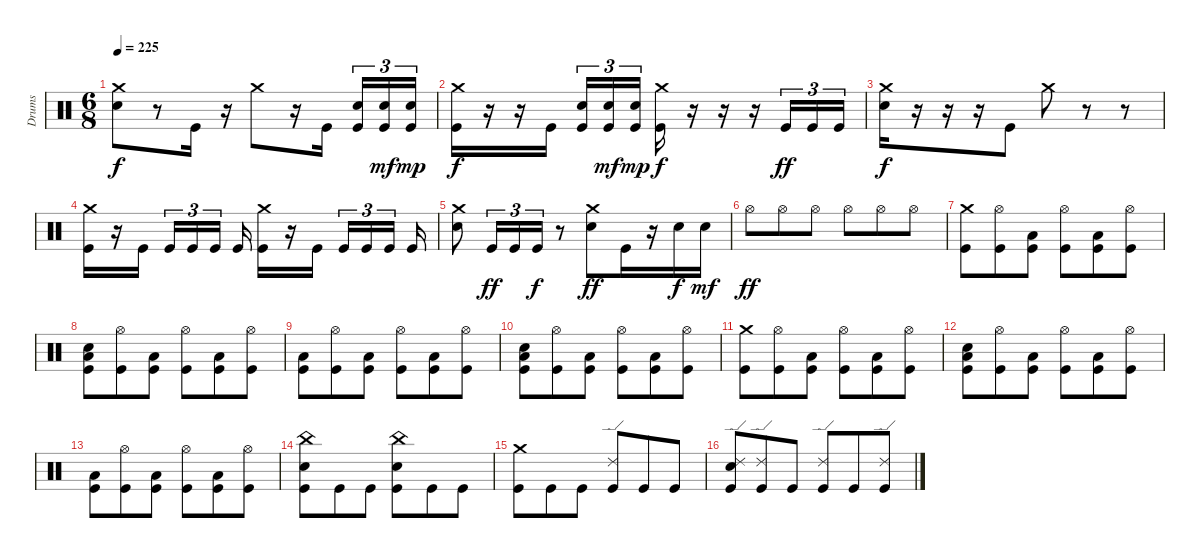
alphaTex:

\track ("Drums" "Drums") {instrument percussion}
\staff {score}
\articulation defaults
\ts (6 8)
\tempo 225
\clef neutral
\ks c
("Snare (hit) 2" "Crash medium (hit)").8{dy f} r.8 "Kick (hit)".16 r.16 "Crash medium (hit)".8 r.16 "Kick (hit)".16{beam splitsecondary} ("Kick (hit)" "Snare (hit) 2").16{tu (3 2)} ("Kick (hit)" "Snare (hit) 2").16{tu (3 2) dy mf} ("Kick (hit)" "Snare (hit) 2").16{tu (3 2) dy mp} |
("Kick (hit)" "Crash medium (hit)").16{dy f} r.16 r.16 "Kick (hit)".16{beam splitsecondary} ("Kick (hit)" "Snare (hit) 2").16{tu (3 2)} ("Kick (hit)" "Snare (hit) 2").16{tu (3 2) dy mf} ("Kick (hit)" "Snare (hit) 2").16{tu (3 2) dy mp} ("Kick (hit)" "Crash medium (hit)").16{dy f} r.16 r.16 r.16 "Kick (hit)".16{tu (3 2) dy ff} "Kick (hit)".16{tu (3 2)} "Kick (hit)".16{tu (3 2)} |
("Snare (hit) 2" "Crash medium (hit)").16{dy f} r.16 r.16 r.16 "Kick (hit)".8 "Crash medium (hit)".8 r.8 r.8 |
("Kick (hit)" "Crash medium (hit)").16 r.16 "Kick (hit)".16{beam splitsecondary} "Kick (hit)".16{tu (3 2)} "Kick (hit)".16{tu (3 2)} "Kick (hit)".16{tu (3 2) beam splitsecondary} "Kick (hit)".16 ("Kick (hit)" "Crash medium (hit)").16 r.16 "Kick (hit)".16{beam splitsecondary} "Kick (hit)".16{tu (3 2)} "Kick (hit)".16{tu (3 2)} "Kick (hit)".16{tu (3 2) beam splitsecondary} "Kick (hit)".16 |
("Snare (hit) 2" "Crash medium (hit)").8 "Kick (hit)".16{tu (3 2) dy ff} "Kick (hit)".16{tu (3 2)} "Kick (hit)".16{tu (3 2) dy f} r.8 ("Snare (hit) 2" "Crash medium (hit)").8{dy ff} "Kick (hit)".16 r.16 "Snare (hit) 2".16{dy f} "Snare (hit) 2".16{dy mf} |
"Hi-Hat (open)".8{dy ff} "Hi-Hat (open)".8 "Hi-Hat (open)".8 "Hi-Hat (open)".8 "Hi-Hat (open)".8 "Hi-Hat (open)".8 |
("Kick (hit)" "Crash medium (hit)").8 ("Kick (hit)" "Hi-Hat (open)").8 ("Kick (hit)" "Low Tom (hit)").8 ("Kick (hit)" "Hi-Hat (open)").8 ("Kick (hit)" "Low Tom (hit)").8 ("Kick (hit)" "Hi-Hat (open)").8 |
("Kick (hit)" "Snare (hit) 2" "Low Tom (hit)").8 ("Kick (hit)" "Hi-Hat (open)").8 ("Kick (hit)" "Low Tom (hit)").8 ("Kick (hit)" "Hi-Hat (open)").8 ("Kick (hit)" "Low Tom (hit)").8 ("Kick (hit)" "Hi-Hat (open)").8 |
("Kick (hit)" "Low Tom (hit)").8 ("Kick (hit)" "Hi-Hat (open)").8 ("Kick (hit)" "Low Tom (hit)").8 ("Kick (hit)" "Hi-Hat (open)").8 ("Kick (hit)" "Low Tom (hit)").8 ("Kick (hit)" "Hi-Hat (open)").8 |
("Kick (hit)" "Snare (hit) 2" "Low Tom (hit)").8 ("Kick (hit)" "Hi-Hat (open)").8 ("Kick (hit)" "Low Tom (hit)").8 ("Kick (hit)" "Hi-Hat (open)").8 ("Kick (hit)" "Low Tom (hit)").8 ("Kick (hit)" "Hi-Hat (open)").8 |
("Kick (hit)" "Crash medium (hit)").8 ("Kick (hit)" "Hi-Hat (open)").8 ("Kick (hit)" "Low Tom (hit)").8 ("Kick (hit)" "Hi-Hat (open)").8 ("Kick (hit)" "Low Tom (hit)").8 ("Kick (hit)" "Hi-Hat (open)").8 |
("Kick (hit)" "Snare (hit) 2" "Low Tom (hit)").8 ("Kick (hit)" "Hi-Hat (open)").8 ("Kick (hit)" "Low Tom (hit)").8 ("Kick (hit)" "Hi-Hat (open)").8 ("Kick (hit)" "Low Tom (hit)").8 ("Kick (hit)" "Hi-Hat (open)").8 |
("Kick (hit)" "Low Tom (hit)").8 ("Kick (hit)" "Hi-Hat (open)").8 ("Kick (hit)" "Low Tom (hit)").8 ("Kick (hit)" "Hi-Hat (open)").8 ("Kick (hit)" "Low Tom (hit)").8 ("Kick (hit)" "Hi-Hat (open)").8 |
("Kick (hit)" "China (hit)" "Snare (hit) 2").8 "Kick (hit)".8 "Kick (hit)".8 ("Kick (hit)" "China (hit)" "Snare (hit) 2").8 "Kick (hit)".8 "Kick (hit)".8 |
("Kick (hit)" "Crash medium (hit)").8 "Kick (hit)".8 "Kick (hit)".8 ("Kick (hit)" "Ride (edge) 2").8 "Kick (hit)".8 "Kick (hit)".8 |
("Kick (hit)" "Snare (hit) 2" "Ride (edge) 2").8 ("Kick (hit)" "Ride (edge) 2").8 "Kick (hit)".8 ("Kick (hit)" "Ride (edge) 2").8 "Kick (hit)".8 ("Kick (hit)" "Ride (edge) 2").8
